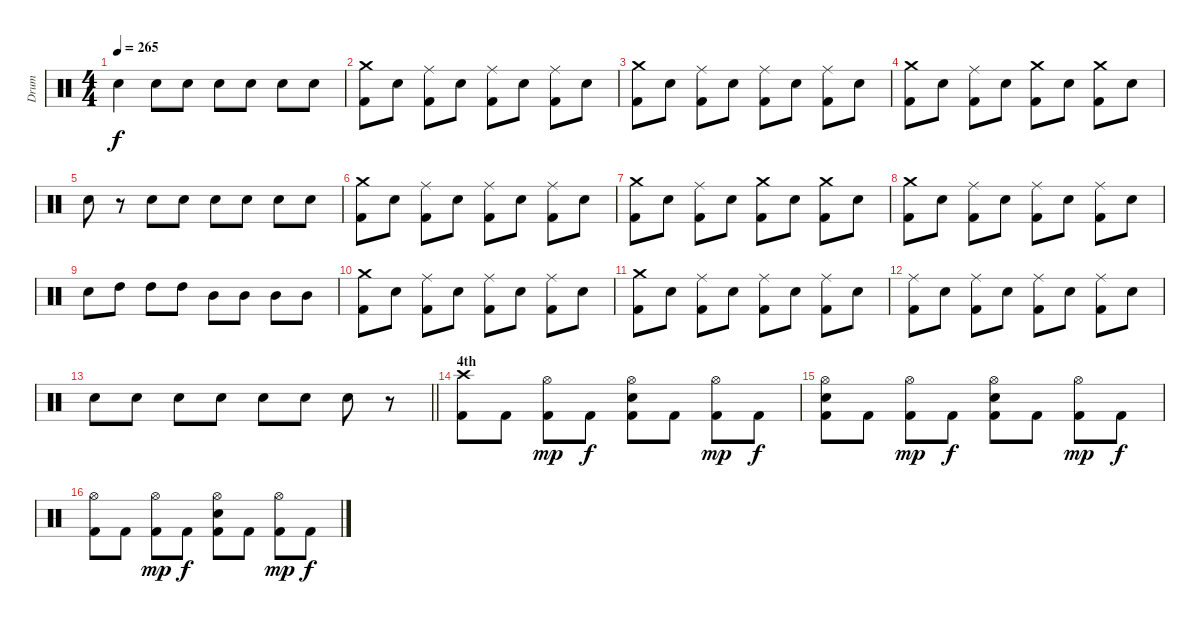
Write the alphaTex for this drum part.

\track ("Drum" "Drum") {instrument percussion}
\staff {score}
\articulation defaults
\ts (4 4)
\tempo 265
\clef neutral
\ks c "Snare (hit) 2".4{dy f} "Snare (hit) 2".8 "Snare (hit) 2".8 "Snare (hit) 2".8 "Snare (hit) 2".8 "Snare (hit) 2".8 "Snare (hit) 2".8
|
("Crash medium (hit)" "Kick (hit) 2").8 "Snare (hit) 2".8 ("Ride (middle)" "Kick (hit) 2").8 "Snare (hit) 2".8 ("Ride (middle)" "Kick (hit) 2").8 "Snare (hit) 2".8 ("Ride (middle)" "Kick (hit) 2").8 "Snare (hit) 2".8 |
("Crash medium (hit)" "Kick (hit) 2").8 "Snare (hit) 2".8 ("Ride (middle)" "Kick (hit) 2").8 "Snare (hit) 2".8 ("Ride (middle)" "Kick (hit) 2").8 "Snare (hit) 2".8 ("Ride (middle)" "Kick (hit) 2").8 "Snare (hit) 2".8 |
("Crash medium (hit)" "Kick (hit) 2").8 "Snare (hit) 2".8 ("Ride (middle)" "Kick (hit) 2").8 "Snare (hit) 2".8 ("Crash medium (hit)" "Kick (hit) 2").8 "Snare (hit) 2".8 ("Crash medium (hit)" "Kick (hit) 2").8 "Snare (hit) 2".8 |
"Snare (hit) 2".8 r.8 "Snare (hit) 2".8 "Snare (hit) 2".8 "Snare (hit) 2".8 "Snare (hit) 2".8 "Snare (hit) 2".8 "Snare (hit) 2".8 |
("Crash medium (hit)" "Kick (hit) 2").8 "Snare (hit) 2".8 ("Ride (middle)" "Kick (hit) 2").8 "Snare (hit) 2".8 ("Ride (middle)" "Kick (hit) 2").8 "Snare (hit) 2".8 ("Ride (middle)" "Kick (hit) 2").8 "Snare (hit) 2".8 |
("Crash medium (hit)" "Kick (hit) 2").8 "Snare (hit) 2".8 ("Ride (middle)" "Kick (hit) 2").8 "Snare (hit) 2".8 ("Crash medium (hit)" "Kick (hit) 2").8 "Snare (hit) 2".8 ("Crash medium (hit)" "Kick (hit) 2").8 "Snare (hit) 2".8 |
("Crash medium (hit)" "Kick (hit) 2").8 "Snare (hit) 2".8 ("Ride (middle)" "Kick (hit) 2").8 "Snare (hit) 2".8 ("Ride (middle)" "Kick (hit) 2").8 "Snare (hit) 2".8 ("Ride (middle)" "Kick (hit) 2").8 "Snare (hit) 2".8 |
"Snare (hit) 2".8 "High Tom (hit)".8 "High Tom (hit)".8 "High Tom (hit)".8 "Mid Tom (hit)".8 "Mid Tom (hit)".8 "Mid Tom (hit)".8 "Mid Tom (hit)".8 |
("Crash medium (hit)" "Kick (hit) 2").8 "Snare (hit) 2".8 ("Ride (middle)" "Kick (hit) 2").8 "Snare (hit) 2".8 ("Ride (middle)" "Kick (hit) 2").8 "Snare (hit) 2".8 ("Ride (middle)" "Kick (hit) 2").8 "Snare (hit) 2".8 |
("Crash medium (hit)" "Kick (hit) 2").8 "Snare (hit) 2".8 ("Ride (middle)" "Kick (hit) 2").8 "Snare (hit) 2".8 ("Ride (middle)" "Kick (hit) 2").8 "Snare (hit) 2".8 ("Ride (middle)" "Kick (hit) 2").8 "Snare (hit) 2".8 |
("Ride (middle)" "Kick (hit) 2").8 "Snare (hit) 2".8 ("Ride (middle)" "Kick (hit) 2").8 "Snare (hit) 2".8 ("Ride (middle)" "Kick (hit) 2").8 "Snare (hit) 2".8 ("Ride (middle)" "Kick (hit) 2").8 "Snare (hit) 2".8 |
\barLineRight lightlight "Snare (hit) 2".8 "Snare (hit) 2".8 "Snare (hit) 2".8 "Snare (hit) 2".8 "Snare (hit) 2".8 "Snare (hit) 2".8 "Snare (hit) 2".8
r.8 |
\section ("" "4th")
("Crash high (hit)" "Kick (hit) 2").8 "Kick (hit) 2".8 ("Hi-Hat (open)" "Kick (hit) 2").8{dy mp} "Kick (hit) 2".8{dy f} ("Snare (hit) 2" "Hi-Hat (open)" "Kick (hit) 2").8 "Kick (hit) 2".8 ("Hi-Hat (open)" "Kick (hit) 2").8{dy mp} "Kick (hit) 2".8{dy f} |
("Hi-Hat (open)" "Snare (hit) 2" "Kick (hit) 2").8 "Kick (hit) 2".8 ("Hi-Hat (open)" "Kick (hit) 2").8{dy mp} "Kick (hit) 2".8{dy f} ("Snare (hit) 2" "Hi-Hat (open)" "Kick (hit) 2").8 "Kick (hit) 2".8 ("Hi-Hat (open)" "Kick (hit) 2").8{dy mp} "Kick (hit) 2".8{dy f} |
("Hi-Hat (open)" "Kick (hit) 2").8 "Kick (hit) 2".8 ("Hi-Hat (open)" "Kick (hit) 2").8{dy mp} "Kick (hit) 2".8{dy f} ("Snare (hit) 2" "Hi-Hat (open)" "Kick (hit) 2").8 "Kick (hit) 2".8 ("Hi-Hat (open)" "Kick (hit) 2").8{dy mp} "Kick (hit) 2".8{dy f}
